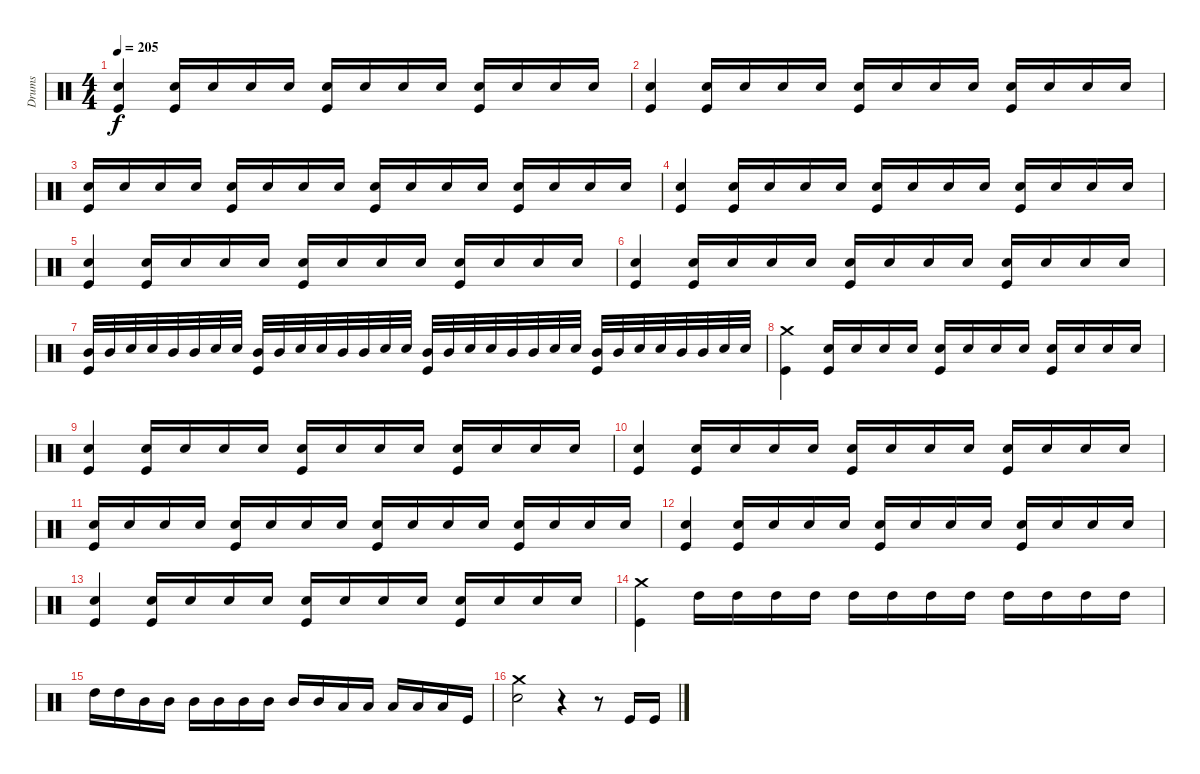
\track ("Drums" "Drums") {instrument percussion}
\staff {score}
\articulation defaults
\ts (4 4)
\tempo 205
\clef neutral
\ks c
("Electric Snare (hit)" "Kick (hit)").4{dy f} ("Electric Snare (hit)" "Kick (hit)").16 "Electric Snare (hit)".16 "Electric Snare (hit)".16 "Electric Snare (hit)".16 ("Electric Snare (hit)" "Kick (hit)").16 "Electric Snare (hit)".16 "Electric Snare (hit)".16 "Electric Snare (hit)".16 ("Electric Snare (hit)" "Kick (hit)").16 "Electric Snare (hit)".16 "Electric Snare (hit)".16 "Electric Snare (hit)".16 |
("Electric Snare (hit)" "Kick (hit)").4 ("Electric Snare (hit)" "Kick (hit)").16 "Electric Snare (hit)".16 "Electric Snare (hit)".16 "Electric Snare (hit)".16 ("Electric Snare (hit)" "Kick (hit)").16 "Electric Snare (hit)".16 "Electric Snare (hit)".16 "Electric Snare (hit)".16 ("Electric Snare (hit)" "Kick (hit)").16 "Electric Snare (hit)".16 "Electric Snare (hit)".16 "Electric Snare (hit)".16 |
("Electric Snare (hit)" "Kick (hit)").16 "Electric Snare (hit)".16 "Electric Snare (hit)".16 "Electric Snare (hit)".16 ("Electric Snare (hit)" "Kick (hit)").16 "Electric Snare (hit)".16 "Electric Snare (hit)".16 "Electric Snare (hit)".16 ("Electric Snare (hit)" "Kick (hit)").16 "Electric Snare (hit)".16 "Electric Snare (hit)".16 "Electric Snare (hit)".16 ("Electric Snare (hit)" "Kick (hit)").16 "Electric Snare (hit)".16 "Electric Snare (hit)".16 "Electric Snare (hit)".16 |
("Electric Snare (hit)" "Kick (hit)").4 ("Electric Snare (hit)" "Kick (hit)").16 "Electric Snare (hit)".16 "Electric Snare (hit)".16 "Electric Snare (hit)".16 ("Electric Snare (hit)" "Kick (hit)").16 "Electric Snare (hit)".16 "Electric Snare (hit)".16 "Electric Snare (hit)".16 ("Electric Snare (hit)" "Kick (hit)").16 "Electric Snare (hit)".16 "Electric Snare (hit)".16 "Electric Snare (hit)".16 |
("Electric Snare (hit)" "Kick (hit)").4 ("Electric Snare (hit)" "Kick (hit)").16 "Electric Snare (hit)".16 "Electric Snare (hit)".16 "Electric Snare (hit)".16 ("Electric Snare (hit)" "Kick (hit)").16 "Electric Snare (hit)".16 "Electric Snare (hit)".16 "Electric Snare (hit)".16 ("Electric Snare (hit)" "Kick (hit)").16 "Electric Snare (hit)".16 "Electric Snare (hit)".16 "Electric Snare (hit)".16 |
("Electric Snare (hit)" "Kick (hit)").4 ("Electric Snare (hit)" "Kick (hit)").16 "Electric Snare (hit)".16 "Electric Snare (hit)".16 "Electric Snare (hit)".16 ("Electric Snare (hit)" "Kick (hit)").16 "Electric Snare (hit)".16 "Electric Snare (hit)".16 "Electric Snare (hit)".16 ("Electric Snare (hit)" "Kick (hit)").16 "Electric Snare (hit)".16 "Electric Snare (hit)".16 "Electric Snare (hit)".16 |
("Mid Tom (hit)" "Kick (hit)").32 "Mid Tom (hit)".32 "Electric Snare (hit)".32 "Electric Snare (hit)".32 "Mid Tom (hit)".32 "Mid Tom (hit)".32 "Electric Snare (hit)".32 "Electric Snare (hit)".32 ("Mid Tom (hit)" "Kick (hit)").32 "Mid Tom (hit)".32 "Electric Snare (hit)".32 "Electric Snare (hit)".32 "Mid Tom (hit)".32 "Mid Tom (hit)".32 "Electric Snare (hit)".32 "Electric Snare (hit)".32 ("Mid Tom (hit)" "Kick (hit)").32 "Mid Tom (hit)".32 "Electric Snare (hit)".32 "Electric Snare (hit)".32 "Mid Tom (hit)".32 "Mid Tom (hit)".32 "Electric Snare (hit)".32 "Electric Snare (hit)".32 ("Mid Tom (hit)" "Kick (hit)").32 "Mid Tom (hit)".32 "Electric Snare (hit)".32 "Electric Snare (hit)".32 "Mid Tom (hit)".32 "Mid Tom (hit)".32 "Electric Snare (hit)".32 "Electric Snare (hit)".32 |
("Crash medium (hit)" "Kick (hit)").4 ("Electric Snare (hit)" "Kick (hit)").16 "Electric Snare (hit)".16 "Electric Snare (hit)".16 "Electric Snare (hit)".16 ("Electric Snare (hit)" "Kick (hit)").16 "Electric Snare (hit)".16 "Electric Snare (hit)".16 "Electric Snare (hit)".16 ("Electric Snare (hit)" "Kick (hit)").16 "Electric Snare (hit)".16 "Electric Snare (hit)".16 "Electric Snare (hit)".16 |
("Electric Snare (hit)" "Kick (hit)").4 ("Electric Snare (hit)" "Kick (hit)").16 "Electric Snare (hit)".16 "Electric Snare (hit)".16 "Electric Snare (hit)".16 ("Electric Snare (hit)" "Kick (hit)").16 "Electric Snare (hit)".16 "Electric Snare (hit)".16 "Electric Snare (hit)".16 ("Electric Snare (hit)" "Kick (hit)").16 "Electric Snare (hit)".16 "Electric Snare (hit)".16 "Electric Snare (hit)".16 |
("Electric Snare (hit)" "Kick (hit)").4 ("Electric Snare (hit)" "Kick (hit)").16 "Electric Snare (hit)".16 "Electric Snare (hit)".16 "Electric Snare (hit)".16 ("Electric Snare (hit)" "Kick (hit)").16 "Electric Snare (hit)".16 "Electric Snare (hit)".16 "Electric Snare (hit)".16 ("Electric Snare (hit)" "Kick (hit)").16 "Electric Snare (hit)".16 "Electric Snare (hit)".16 "Electric Snare (hit)".16 |
("Electric Snare (hit)" "Kick (hit)").16 "Electric Snare (hit)".16 "Electric Snare (hit)".16 "Electric Snare (hit)".16 ("Electric Snare (hit)" "Kick (hit)").16 "Electric Snare (hit)".16 "Electric Snare (hit)".16 "Electric Snare (hit)".16 ("Electric Snare (hit)" "Kick (hit)").16 "Electric Snare (hit)".16 "Electric Snare (hit)".16 "Electric Snare (hit)".16 ("Electric Snare (hit)" "Kick (hit)").16 "Electric Snare (hit)".16 "Electric Snare (hit)".16 "Electric Snare (hit)".16 |
("Electric Snare (hit)" "Kick (hit)").4 ("Electric Snare (hit)" "Kick (hit)").16 "Electric Snare (hit)".16 "Electric Snare (hit)".16 "Electric Snare (hit)".16 ("Electric Snare (hit)" "Kick (hit)").16 "Electric Snare (hit)".16 "Electric Snare (hit)".16 "Electric Snare (hit)".16 ("Electric Snare (hit)" "Kick (hit)").16 "Electric Snare (hit)".16 "Electric Snare (hit)".16 "Electric Snare (hit)".16 |
("Electric Snare (hit)" "Kick (hit)").4 ("Electric Snare (hit)" "Kick (hit)").16 "Electric Snare (hit)".16 "Electric Snare (hit)".16 "Electric Snare (hit)".16 ("Electric Snare (hit)" "Kick (hit)").16 "Electric Snare (hit)".16 "Electric Snare (hit)".16 "Electric Snare (hit)".16 ("Electric Snare (hit)" "Kick (hit)").16 "Electric Snare (hit)".16 "Electric Snare (hit)".16 "Electric Snare (hit)".16 |
("Crash medium (hit)" "Kick (hit)").4 "High Tom (hit)".16 "High Tom (hit)".16 "High Tom (hit)".16 "High Tom (hit)".16 "High Tom (hit)".16 "High Tom (hit)".16 "High Tom (hit)".16 "High Tom (hit)".16 "High Tom (hit)".16 "High Tom (hit)".16 "High Tom (hit)".16 "High Tom (hit)".16 |
"High Tom (hit)".16 "High Tom (hit)".16 "Mid Tom (hit)".16 "Mid Tom (hit)".16 "Mid Tom (hit)".16 "Mid Tom (hit)".16 "Mid Tom (hit)".16 "Mid Tom (hit)".16 "Mid Tom (hit)".16 "Mid Tom (hit)".16 "Low Tom (hit)".16 "Low Tom (hit)".16 "Low Tom (hit)".16 "Low Tom (hit)".16 "Low Tom (hit)".16 "Kick (hit)".16 |
("Crash medium (hit)" "Electric Snare (hit)").2 r.4 r.8 "Kick (hit)".16 "Kick (hit)".16
